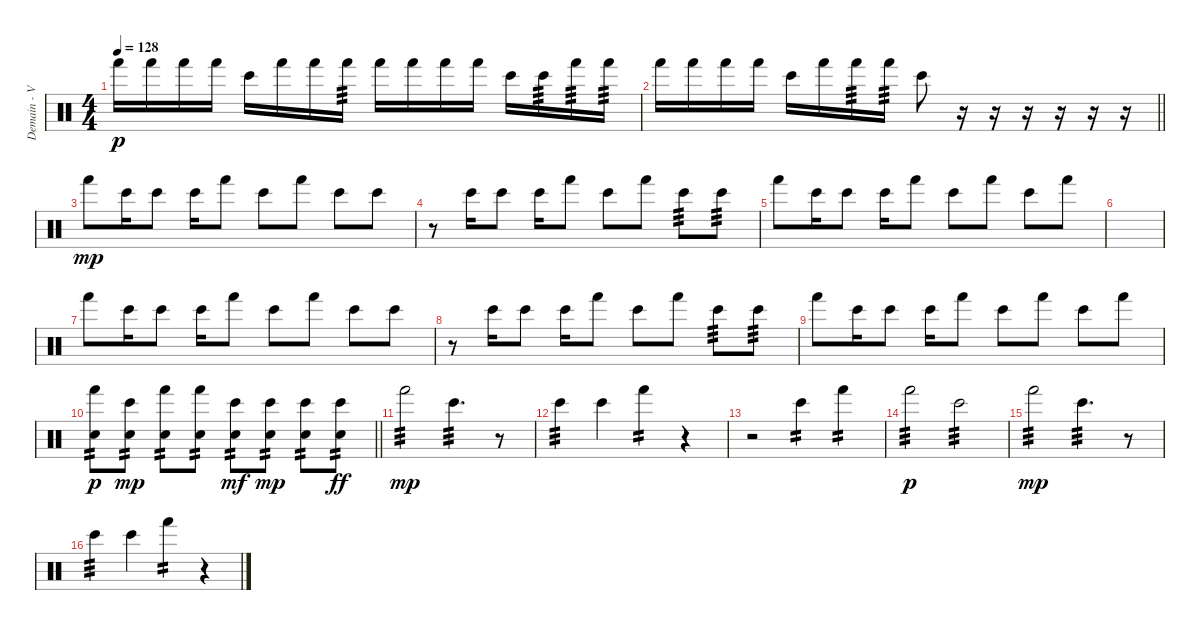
\track ("Demain - Various Perc." "Demain - V") {instrument percussion}
\staff {score}
\articulation defaults
\ts (4 4)
\tempo 128
\clef neutral
\ks c "Hand (hit)".16{dy p} "Hand (hit)".16 "Hand (hit)".16 "Hand (hit)".16 "Bongo High (hit)".16 "Hand (hit)".16 "Hand (hit)".16 "Hand (hit)".16{tp 3} "Hand (hit)".16 "Hand (hit)".16 "Hand (hit)".16 "Hand (hit)".16 "Bongo High (hit)".16 "Bongo High (hit)".16{tp 3} "Hand (hit)".16{tp 3} "Hand (hit)".16{tp 3}
|
\barLineRight lightlight "Hand (hit)".16 "Hand (hit)".16 "Hand (hit)".16 "Hand (hit)".16 "Bongo High (hit)".16 "Hand (hit)".16 "Hand (hit)".16{tp 3} "Hand (hit)".16{tp 3} "Bongo High (hit)".8
r.16 r.16 r.16 r.16 r.16 r.16 |
"Hand (hit)".8{dy mp} "Bongo High (hit)".16 "Bongo High (hit)".8 "Bongo High (hit)".16 "Hand (hit)".8 "Bongo High (hit)".8 "Hand (hit)".8 "Bongo High (hit)".8 "Bongo High (hit)".8 |
r.8 "Bongo High (hit)".16 "Bongo High (hit)".8 "Bongo High (hit)".16 "Hand (hit)".8 "Bongo High (hit)".8 "Hand (hit)".8 "Bongo High (hit)".8{tp 3} "Bongo High (hit)".8{tp 3} |
"Hand (hit)".8 "Bongo High (hit)".16 "Bongo High (hit)".8 "Bongo High (hit)".16 "Hand (hit)".8 "Bongo High (hit)".8 "Hand (hit)".8 "Bongo High (hit)".8 "Hand (hit)".8 |
|
"Hand (hit)".8 "Bongo High (hit)".16 "Bongo High (hit)".8 "Bongo High (hit)".16 "Hand (hit)".8 "Bongo High (hit)".8 "Hand (hit)".8 "Bongo High (hit)".8 "Bongo High (hit)".8 |
r.8 "Bongo High (hit)".16 "Bongo High (hit)".8 "Bongo High (hit)".16 "Hand (hit)".8 "Bongo High (hit)".8 "Hand (hit)".8 "Bongo High (hit)".8{tp 3} "Bongo High (hit)".8{tp 3} |
"Hand (hit)".8 "Bongo High (hit)".16 "Bongo High (hit)".8 "Bongo High (hit)".16 "Hand (hit)".8 "Bongo High (hit)".8 "Hand (hit)".8 "Bongo High (hit)".8 "Hand (hit)".8 |
\barLineRight lightlight
("Hand (hit)" "Electric Snare (hit)").8{tp 2 dy p} ("Bongo High (hit)" "Electric Snare (hit)").8{tp 2 dy mp} ("Hand (hit)" "Electric Snare (hit)").8{tp 2} ("Hand (hit)" "Electric Snare (hit)").8{tp 2} ("Bongo High (hit)" "Electric Snare (hit)").8{tp 2 dy mf} ("Bongo High (hit)" "Electric Snare (hit)").8{tp 2 dy mp} ("Bongo High (hit)" "Electric Snare (hit)").8{tp 2} ("Bongo High (hit)" "Electric Snare (hit)").8{tp 2 dy ff} |
"Hand (hit)".2{tp 3 dy mp} "Bongo High (hit)".4{d tp 3} r.8 |
"Bongo High (hit)".4{tp 3} "Bongo High (hit)".4 "Hand (hit)".4{tp 2} r.4 |
r.2 "Bongo High (hit)".4{tp 2} "Hand (hit)".4{tp 2} |
"Hand (hit)".2{tp 3 dy p} "Bongo High (hit)".2{tp 3} |
"Hand (hit)".2{tp 3 dy mp} "Bongo High (hit)".4{d tp 3} r.8 |
"Bongo High (hit)".4{tp 3} "Bongo High (hit)".4 "Hand (hit)".4{tp 2} r.4
